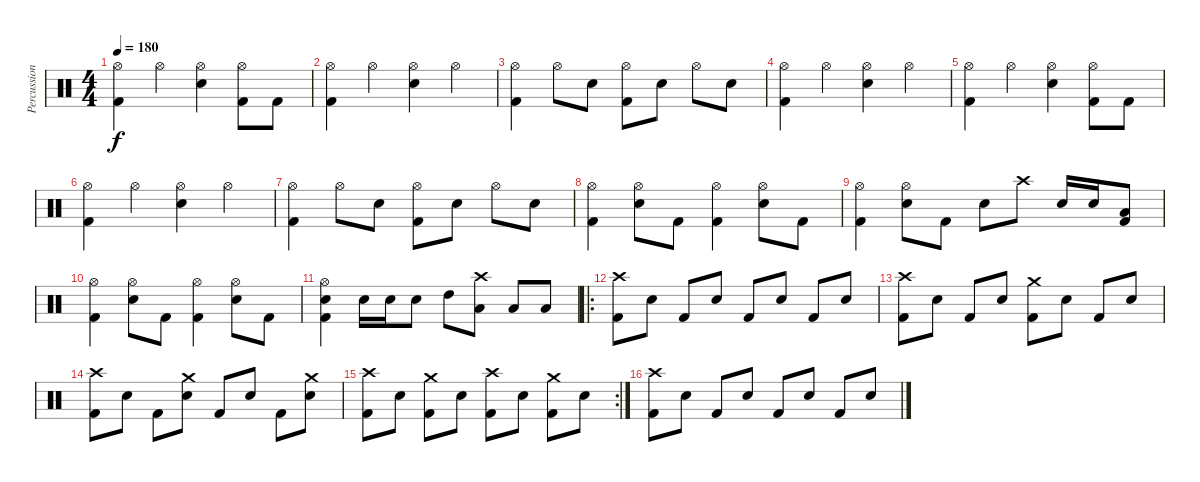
\track ("Percussions" "Percussion") {instrument percussion}
\staff {score}
\articulation defaults
\ts (4 4)
\tempo 180
\clef neutral
\ks c
("Hi-Hat (open)" "Kick (hit) 2").4{dy f} "Hi-Hat (open)".4 ("Hi-Hat (open)" "Electric Snare (hit)").4 ("Hi-Hat (open)" "Kick (hit) 2").8 "Kick (hit) 2".8 |
("Hi-Hat (open)" "Kick (hit) 2").4 "Hi-Hat (open)".4 ("Hi-Hat (open)" "Electric Snare (hit)").4 "Hi-Hat (open)".4 |
("Hi-Hat (open)" "Kick (hit) 2").4 "Hi-Hat (open)".8 "Electric Snare (hit)".8 ("Hi-Hat (open)" "Kick (hit) 2").8 "Electric Snare (hit)".8 "Hi-Hat (open)".8 "Electric Snare (hit)".8 |
("Hi-Hat (open)" "Kick (hit) 2").4 "Hi-Hat (open)".4 ("Hi-Hat (open)" "Electric Snare (hit)").4 "Hi-Hat (open)".4 |
("Hi-Hat (open)" "Kick (hit) 2").4 "Hi-Hat (open)".4 ("Hi-Hat (open)" "Electric Snare (hit)").4 ("Hi-Hat (open)" "Kick (hit) 2").8 "Kick (hit) 2".8 |
("Hi-Hat (open)" "Kick (hit) 2").4 "Hi-Hat (open)".4 ("Hi-Hat (open)" "Electric Snare (hit)").4 "Hi-Hat (open)".4 |
("Hi-Hat (open)" "Kick (hit) 2").4 "Hi-Hat (open)".8 "Electric Snare (hit)".8 ("Hi-Hat (open)" "Kick (hit) 2").8 "Electric Snare (hit)".8 "Hi-Hat (open)".8 "Electric Snare (hit)".8 |
("Hi-Hat (open)" "Kick (hit) 2").4 ("Hi-Hat (open)" "Electric Snare (hit)").8 "Kick (hit) 2".8 ("Hi-Hat (open)" "Kick (hit) 2").4 ("Hi-Hat (open)" "Electric Snare (hit)").8 "Kick (hit) 2".8 |
("Hi-Hat (open)" "Kick (hit) 2").4 ("Hi-Hat (open)" "Electric Snare (hit)").8 "Kick (hit) 2".8 "Electric Snare (hit)".8 "Crash high (hit)".8 "Electric Snare (hit)".16 "Electric Snare (hit)".16 ("Low Floor Tom (hit)" "Kick (hit) 2").8 |
("Hi-Hat (open)" "Kick (hit) 2").4 ("Hi-Hat (open)" "Electric Snare (hit)").8 "Kick (hit) 2".8 ("Hi-Hat (open)" "Kick (hit) 2").4 ("Hi-Hat (open)" "Electric Snare (hit)").8 "Kick (hit) 2".8 |
("Hi-Hat (open)" "Electric Snare (hit)" "Kick (hit) 2").4 "Electric Snare (hit)".16 "Electric Snare (hit)".16 "Electric Snare (hit)".8 "High Tom (hit)".8 ("Crash high (hit)" "Low Tom (hit)").8 "Low Floor Tom (hit)".8 "Low Floor Tom (hit)".8 |
\ro
("Crash high (hit)" "Kick (hit) 2").8 "Electric Snare (hit)".8 "Kick (hit) 2".8 "Electric Snare (hit)".8 "Kick (hit) 2".8 "Electric Snare (hit)".8 "Kick (hit) 2".8 "Electric Snare (hit)".8 |
("Crash high (hit)" "Kick (hit) 2").8 "Electric Snare (hit)".8 "Kick (hit) 2".8 "Electric Snare (hit)".8 ("Crash medium (hit)" "Kick (hit) 2").8 "Electric Snare (hit)".8 "Kick (hit) 2".8 "Electric Snare (hit)".8 |
("Crash high (hit)" "Kick (hit) 2").8 "Electric Snare (hit)".8 "Kick (hit) 2".8 ("Crash medium (hit)" "Electric Snare (hit)").8 "Kick (hit) 2".8 "Electric Snare (hit)".8 "Kick (hit) 2".8 ("Crash medium (hit)" "Electric Snare (hit)").8 |
\rc 2
("Crash high (hit)" "Kick (hit) 2").8 "Electric Snare (hit)".8 ("Crash medium (hit)" "Kick (hit) 2").8 "Electric Snare (hit)".8 ("Crash high (hit)" "Kick (hit) 2").8 "Electric Snare (hit)".8 ("Crash medium (hit)" "Kick (hit) 2").8 "Electric Snare (hit)".8 |
("Crash high (hit)" "Kick (hit) 2").8 "Electric Snare (hit)".8 "Kick (hit) 2".8 "Electric Snare (hit)".8 "Kick (hit) 2".8 "Electric Snare (hit)".8 "Kick (hit) 2".8 "Electric Snare (hit)".8
